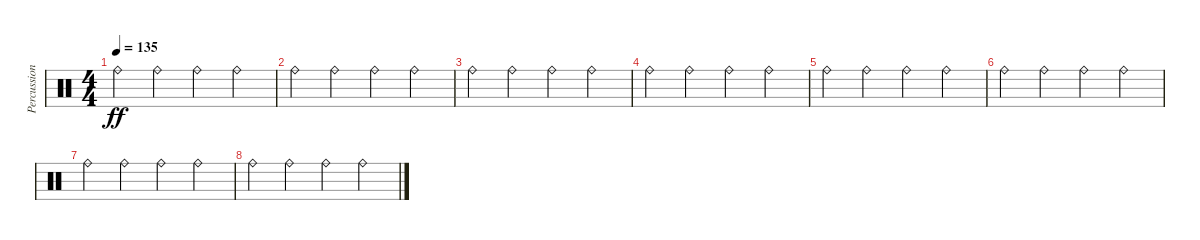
\track ("Percussion" "Percussion") {instrument percussion}
\staff {score}
\articulation defaults
\ts (4 4)
\tempo 135
\clef neutral
\ks c "Ride (bell)".4{dy ff} "Ride (bell)".4 "Ride (bell)".4 "Ride (bell)".4
|
"Ride (bell)".4 "Ride (bell)".4 "Ride (bell)".4 "Ride (bell)".4 |
"Ride (bell)".4 "Ride (bell)".4 "Ride (bell)".4 "Ride (bell)".4 |
"Ride (bell)".4 "Ride (bell)".4 "Ride (bell)".4 "Ride (bell)".4 |
"Ride (bell)".4 "Ride (bell)".4 "Ride (bell)".4 "Ride (bell)".4 |
"Ride (bell)".4 "Ride (bell)".4 "Ride (bell)".4 "Ride (bell)".4 |
"Ride (bell)".4 "Ride (bell)".4 "Ride (bell)".4 "Ride (bell)".4 |
"Ride (bell)".4 "Ride (bell)".4 "Ride (bell)".4 "Ride (bell)".4
